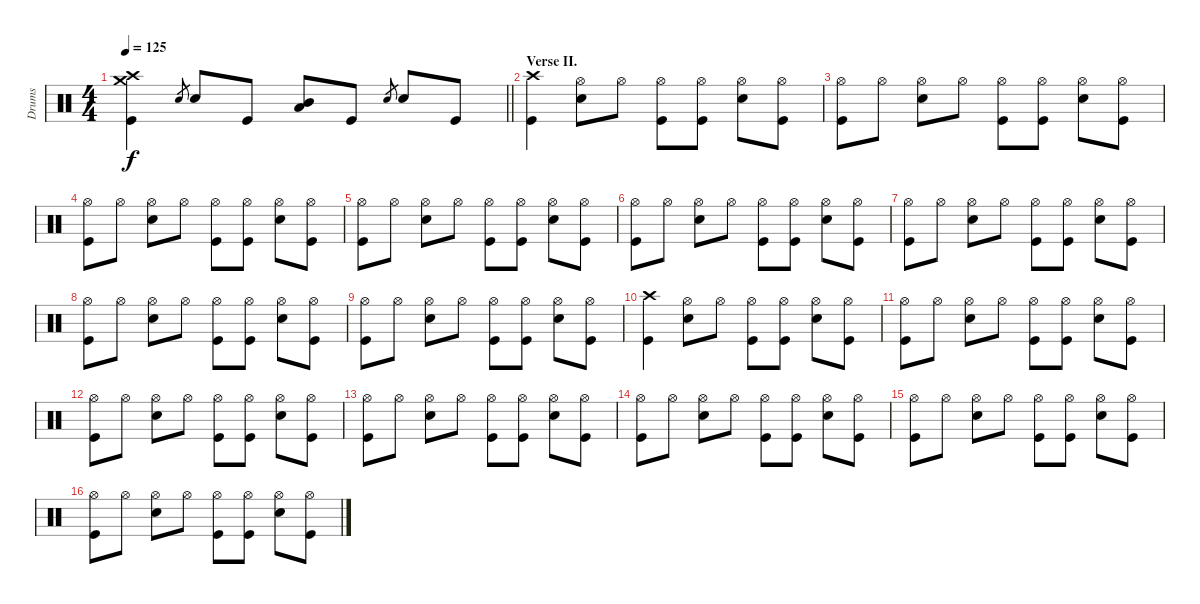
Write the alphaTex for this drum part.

\track ("Drums" "Drums") {instrument percussion}
\staff {score}
\articulation defaults
\ts (4 4)
\tempo 125
\clef neutral
\barLineRight lightlight
\ks c
("Crash medium (hit)" "Crash high (hit)" "Kick (hit)").4{dy f} "Electric Snare (hit)".8{gr} "Electric Snare (hit)".8 "Kick (hit)".8 ("Mid Tom (hit)" "Low Tom (hit)").8 "Kick (hit)".8 "Electric Snare (hit)".8{gr} "Electric Snare (hit)".8 "Kick (hit)".8 |
\section ("" "Verse II.")
("Crash high (hit)" "Kick (hit)").4 ("Hi-Hat (open)" "Electric Snare (hit)").8 "Hi-Hat (open)".8 ("Hi-Hat (open)" "Kick (hit)").8 ("Hi-Hat (open)" "Kick (hit)").8 ("Hi-Hat (open)" "Electric Snare (hit)").8 ("Hi-Hat (open)" "Kick (hit)").8 |
("Hi-Hat (open)" "Kick (hit)").8 "Hi-Hat (open)".8 ("Hi-Hat (open)" "Electric Snare (hit)").8 "Hi-Hat (open)".8 ("Hi-Hat (open)" "Kick (hit)").8 ("Hi-Hat (open)" "Kick (hit)").8 ("Hi-Hat (open)" "Electric Snare (hit)").8 ("Hi-Hat (open)" "Kick (hit)").8 |
("Hi-Hat (open)" "Kick (hit)").8 "Hi-Hat (open)".8 ("Hi-Hat (open)" "Electric Snare (hit)").8 "Hi-Hat (open)".8 ("Hi-Hat (open)" "Kick (hit)").8 ("Hi-Hat (open)" "Kick (hit)").8 ("Hi-Hat (open)" "Electric Snare (hit)").8 ("Hi-Hat (open)" "Kick (hit)").8 |
("Hi-Hat (open)" "Kick (hit)").8 "Hi-Hat (open)".8 ("Hi-Hat (open)" "Electric Snare (hit)").8 "Hi-Hat (open)".8 ("Hi-Hat (open)" "Kick (hit)").8 ("Hi-Hat (open)" "Kick (hit)").8 ("Hi-Hat (open)" "Electric Snare (hit)").8 ("Hi-Hat (open)" "Kick (hit)").8 |
("Hi-Hat (open)" "Kick (hit)").8 "Hi-Hat (open)".8 ("Hi-Hat (open)" "Electric Snare (hit)").8 "Hi-Hat (open)".8 ("Hi-Hat (open)" "Kick (hit)").8 ("Hi-Hat (open)" "Kick (hit)").8 ("Hi-Hat (open)" "Electric Snare (hit)").8 ("Hi-Hat (open)" "Kick (hit)").8 |
("Hi-Hat (open)" "Kick (hit)").8 "Hi-Hat (open)".8 ("Hi-Hat (open)" "Electric Snare (hit)").8 "Hi-Hat (open)".8 ("Hi-Hat (open)" "Kick (hit)").8 ("Hi-Hat (open)" "Kick (hit)").8 ("Hi-Hat (open)" "Electric Snare (hit)").8 ("Hi-Hat (open)" "Kick (hit)").8 |
("Hi-Hat (open)" "Kick (hit)").8 "Hi-Hat (open)".8 ("Hi-Hat (open)" "Electric Snare (hit)").8 "Hi-Hat (open)".8 ("Hi-Hat (open)" "Kick (hit)").8 ("Hi-Hat (open)" "Kick (hit)").8 ("Hi-Hat (open)" "Electric Snare (hit)").8 ("Hi-Hat (open)" "Kick (hit)").8 |
("Hi-Hat (open)" "Kick (hit)").8 "Hi-Hat (open)".8 ("Hi-Hat (open)" "Electric Snare (hit)").8 "Hi-Hat (open)".8 ("Hi-Hat (open)" "Kick (hit)").8 ("Hi-Hat (open)" "Kick (hit)").8 ("Hi-Hat (open)" "Electric Snare (hit)").8 ("Hi-Hat (open)" "Kick (hit)").8 |
("Crash high (hit)" "Kick (hit)").4 ("Hi-Hat (open)" "Electric Snare (hit)").8 "Hi-Hat (open)".8 ("Hi-Hat (open)" "Kick (hit)").8 ("Hi-Hat (open)" "Kick (hit)").8 ("Hi-Hat (open)" "Electric Snare (hit)").8 ("Hi-Hat (open)" "Kick (hit)").8 |
("Hi-Hat (open)" "Kick (hit)").8 "Hi-Hat (open)".8 ("Hi-Hat (open)" "Electric Snare (hit)").8 "Hi-Hat (open)".8 ("Hi-Hat (open)" "Kick (hit)").8 ("Hi-Hat (open)" "Kick (hit)").8 ("Hi-Hat (open)" "Electric Snare (hit)").8 ("Hi-Hat (open)" "Kick (hit)").8 |
("Hi-Hat (open)" "Kick (hit)").8 "Hi-Hat (open)".8 ("Hi-Hat (open)" "Electric Snare (hit)").8 "Hi-Hat (open)".8 ("Hi-Hat (open)" "Kick (hit)").8 ("Hi-Hat (open)" "Kick (hit)").8 ("Hi-Hat (open)" "Electric Snare (hit)").8 ("Hi-Hat (open)" "Kick (hit)").8 |
("Hi-Hat (open)" "Kick (hit)").8 "Hi-Hat (open)".8 ("Hi-Hat (open)" "Electric Snare (hit)").8 "Hi-Hat (open)".8 ("Hi-Hat (open)" "Kick (hit)").8 ("Hi-Hat (open)" "Kick (hit)").8 ("Hi-Hat (open)" "Electric Snare (hit)").8 ("Hi-Hat (open)" "Kick (hit)").8 |
("Hi-Hat (open)" "Kick (hit)").8 "Hi-Hat (open)".8 ("Hi-Hat (open)" "Electric Snare (hit)").8 "Hi-Hat (open)".8 ("Hi-Hat (open)" "Kick (hit)").8 ("Hi-Hat (open)" "Kick (hit)").8 ("Hi-Hat (open)" "Electric Snare (hit)").8 ("Hi-Hat (open)" "Kick (hit)").8 |
("Hi-Hat (open)" "Kick (hit)").8 "Hi-Hat (open)".8 ("Hi-Hat (open)" "Electric Snare (hit)").8 "Hi-Hat (open)".8 ("Hi-Hat (open)" "Kick (hit)").8 ("Hi-Hat (open)" "Kick (hit)").8 ("Hi-Hat (open)" "Electric Snare (hit)").8 ("Hi-Hat (open)" "Kick (hit)").8 |
("Hi-Hat (open)" "Kick (hit)").8 "Hi-Hat (open)".8 ("Hi-Hat (open)" "Electric Snare (hit)").8 "Hi-Hat (open)".8 ("Hi-Hat (open)" "Kick (hit)").8 ("Hi-Hat (open)" "Kick (hit)").8 ("Hi-Hat (open)" "Electric Snare (hit)").8 ("Hi-Hat (open)" "Kick (hit)").8
